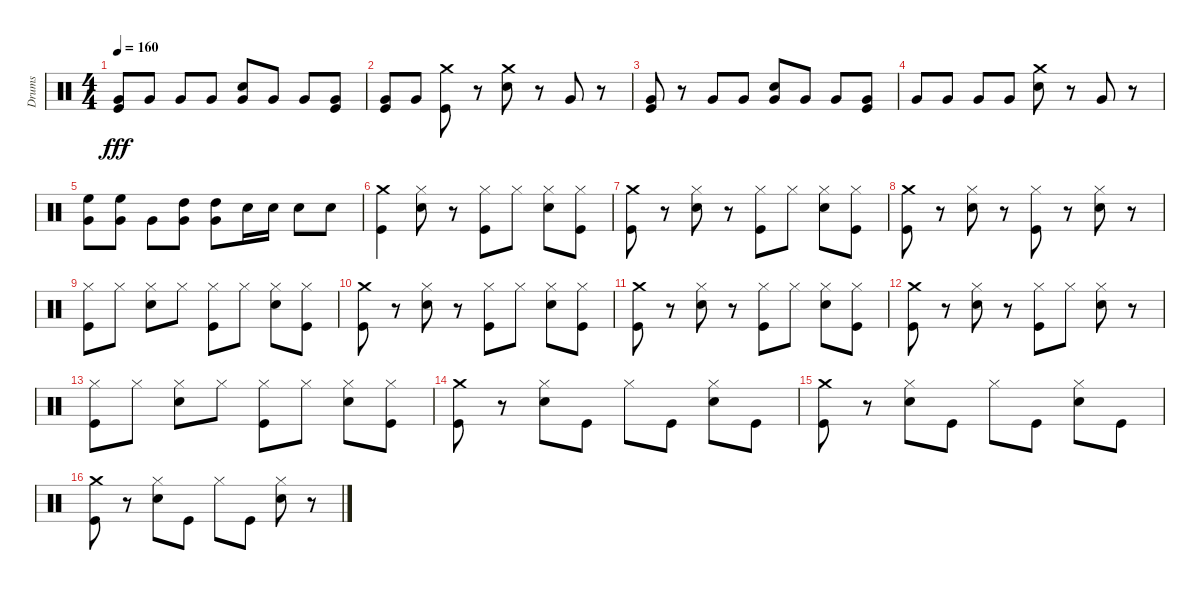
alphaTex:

\track ("Drums" "Drums") {instrument percussion}
\staff {score}
\articulation defaults
\ts (4 4)
\tempo 160
\clef neutral
\ks c
("Kick (hit)" "Very Low Tom (hit)").8{dy fff} "Very Low Tom (hit)".8 "Very Low Tom (hit)".8 "Very Low Tom (hit)".8 ("Snare (hit) 2" "Very Low Tom (hit)").8 "Very Low Tom (hit)".8 "Very Low Tom (hit)".8 ("Kick (hit)" "Very Low Tom (hit)").8 |
("Very Low Tom (hit)" "Kick (hit)").8 "Very Low Tom (hit)".8 ("Crash medium (hit)" "Kick (hit)").8 r.8 ("Snare (hit) 2" "Crash medium (hit)").8 r.8 "Very Low Tom (hit)".8 r.8 |
("Kick (hit)" "Very Low Tom (hit)").8 r.8 "Very Low Tom (hit)".8 "Very Low Tom (hit)".8 ("Snare (hit) 2" "Very Low Tom (hit)").8 "Very Low Tom (hit)".8 "Very Low Tom (hit)".8 ("Kick (hit)" "Very Low Tom (hit)").8 |
"Very Low Tom (hit)".8 "Very Low Tom (hit)".8 "Very Low Tom (hit)".8 "Very Low Tom (hit)".8 ("Crash medium (hit)" "Snare (hit) 2").8 r.8 "Very Low Tom (hit)".8 r.8 |
("High Floor Tom (hit)" "Very Low Tom (hit)").8 ("High Floor Tom (hit)" "Very Low Tom (hit)").8 "Very Low Tom (hit)".8 ("High Tom (hit)" "Very Low Tom (hit)").8 ("High Tom (hit)" "Very Low Tom (hit)").8 "Snare (hit) 2".16 "Snare (hit) 2".16 "Snare (hit) 2".8 "Snare (hit) 2".8 |
("Crash medium (hit)" "Kick (hit)").4 ("Hi-Hat (closed)" "Snare (hit) 2").8 r.8 ("Kick (hit)" "Hi-Hat (closed)").8 "Hi-Hat (closed)".8 ("Snare (hit) 2" "Hi-Hat (closed)").8 ("Kick (hit)" "Hi-Hat (closed)").8 |
("Crash medium (hit)" "Kick (hit)").8 r.8 ("Hi-Hat (closed)" "Snare (hit) 2").8 r.8 ("Kick (hit)" "Hi-Hat (closed)").8 "Hi-Hat (closed)".8 ("Snare (hit) 2" "Hi-Hat (closed)").8 ("Hi-Hat (closed)" "Kick (hit)").8 |
("Crash medium (hit)" "Kick (hit)").8 r.8 ("Snare (hit) 2" "Hi-Hat (closed)").8 r.8 ("Kick (hit)" "Hi-Hat (closed)").8 r.8 ("Snare (hit) 2" "Hi-Hat (closed)").8 r.8 |
("Hi-Hat (closed)" "Kick (hit)").8 "Hi-Hat (closed)".8 ("Snare (hit) 2" "Hi-Hat (closed)").8 "Hi-Hat (closed)".8 ("Kick (hit)" "Hi-Hat (closed)").8 "Hi-Hat (closed)".8 ("Snare (hit) 2" "Hi-Hat (closed)").8 ("Kick (hit)" "Hi-Hat (closed)").8 |
("Crash medium (hit)" "Kick (hit)").8 r.8 ("Hi-Hat (closed)" "Snare (hit) 2").8 r.8 ("Kick (hit)" "Hi-Hat (closed)").8 "Hi-Hat (closed)".8 ("Snare (hit) 2" "Hi-Hat (closed)").8 ("Kick (hit)" "Hi-Hat (closed)").8 |
("Crash medium (hit)" "Kick (hit)").8 r.8 ("Hi-Hat (closed)" "Snare (hit) 2").8 r.8 ("Kick (hit)" "Hi-Hat (closed)").8 "Hi-Hat (closed)".8 ("Snare (hit) 2" "Hi-Hat (closed)").8 ("Kick (hit)" "Hi-Hat (closed)").8 |
("Crash medium (hit)" "Kick (hit)").8 r.8 ("Hi-Hat (closed)" "Snare (hit) 2").8 r.8 ("Kick (hit)" "Hi-Hat (closed)").8 "Hi-Hat (closed)".8 ("Snare (hit) 2" "Hi-Hat (closed)").8 r.8 |
("Hi-Hat (closed)" "Kick (hit)").8 "Hi-Hat (closed)".8 ("Snare (hit) 2" "Hi-Hat (closed)").8 "Hi-Hat (closed)".8 ("Kick (hit)" "Hi-Hat (closed)").8 "Hi-Hat (closed)".8 ("Snare (hit) 2" "Hi-Hat (closed)").8 ("Kick (hit)" "Hi-Hat (closed)").8 |
("Crash medium (hit)" "Kick (hit)").8 r.8 ("Hi-Hat (closed)" "Snare (hit) 2").8 "Kick (hit)".8 "Hi-Hat (closed)".8 "Kick (hit)".8 ("Hi-Hat (closed)" "Snare (hit) 2").8 "Kick (hit)".8 |
("Crash medium (hit)" "Kick (hit)").8 r.8 ("Hi-Hat (closed)" "Snare (hit) 2").8 "Kick (hit)".8 "Hi-Hat (closed)".8 "Kick (hit)".8 ("Snare (hit) 2" "Hi-Hat (closed)").8 "Kick (hit)".8 |
("Crash medium (hit)" "Kick (hit)").8 r.8 ("Hi-Hat (closed)" "Snare (hit) 2").8 "Kick (hit)".8 "Hi-Hat (closed)".8 "Kick (hit)".8 ("Snare (hit) 2" "Hi-Hat (closed)").8 r.8
